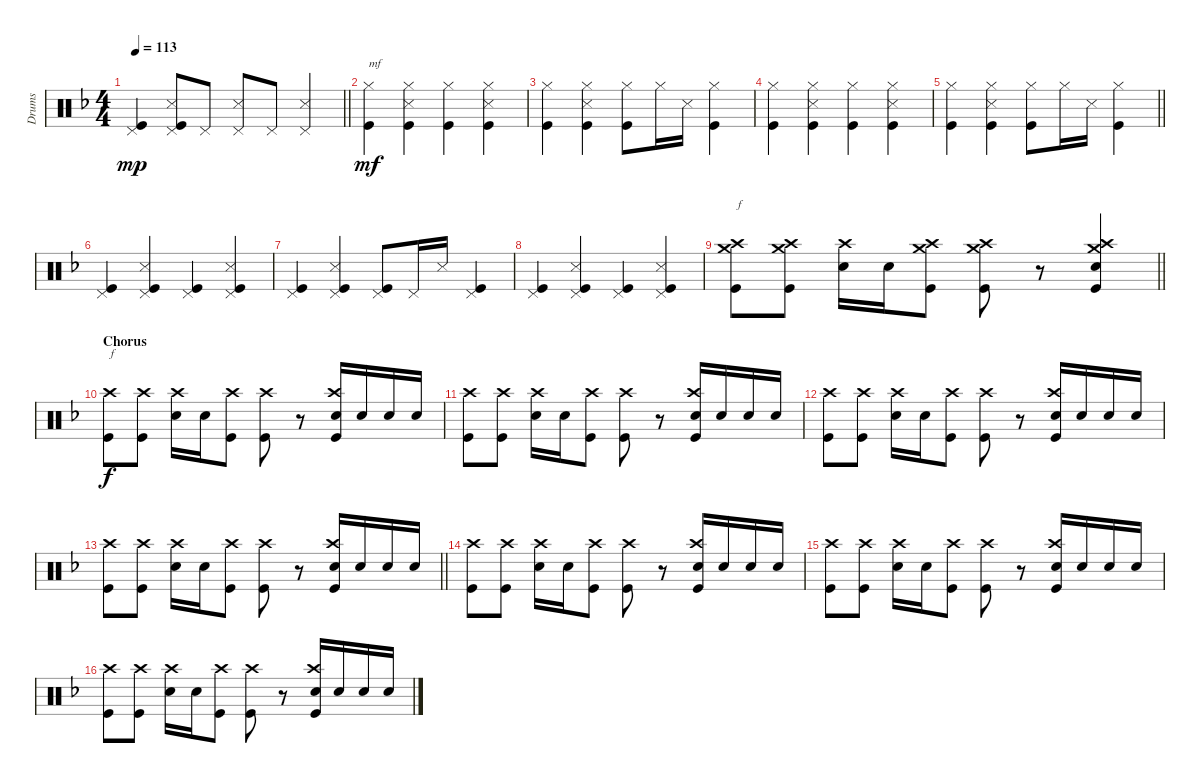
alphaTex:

\track ("Drums" "Drums") {instrument percussion}
\staff {score}
\articulation defaults
\ts (4 4)
\tempo 113
\clef neutral
\barLineRight lightlight
\ks dminor
("Pedal Hi-Hat (hit)" "Kick (hit)").4{dy mp} ("Pedal Hi-Hat (hit)" "Snare (side stick) 3" "Kick (hit)").8 "Pedal Hi-Hat (hit)".8 ("Pedal Hi-Hat (hit)" "Snare (side stick) 3").8 "Pedal Hi-Hat (hit)".8 ("Pedal Hi-Hat (hit)" "Snare (side stick) 3").4 |
\section ("" "")
("Hi-Hat (closed)" "Kick (hit)").4{txt "mf" dy mf} ("Hi-Hat (closed)" "Snare (side stick) 3" "Kick (hit)").4 ("Hi-Hat (closed)" "Kick (hit)").4 ("Hi-Hat (closed)" "Snare (side stick) 3" "Kick (hit)").4 |
("Hi-Hat (closed)" "Kick (hit)").4 ("Hi-Hat (closed)" "Snare (side stick) 3" "Kick (hit)").4 ("Hi-Hat (closed)" "Kick (hit)").8 "Hi-Hat (closed)".16 "Snare (side stick) 3".16 ("Hi-Hat (closed)" "Kick (hit)").4 |
("Hi-Hat (closed)" "Kick (hit)").4 ("Hi-Hat (closed)" "Snare (side stick) 3" "Kick (hit)").4 ("Hi-Hat (closed)" "Kick (hit)").4 ("Hi-Hat (closed)" "Snare (side stick) 3" "Kick (hit)").4 |
\barLineRight lightlight
("Hi-Hat (closed)" "Kick (hit)").4 ("Hi-Hat (closed)" "Snare (side stick) 3" "Kick (hit)").4 ("Hi-Hat (closed)" "Kick (hit)").8 "Hi-Hat (closed)".16 "Snare (side stick) 3".16 ("Hi-Hat (closed)" "Kick (hit)").4 |
\section ("" "")
("Pedal Hi-Hat (hit)" "Kick (hit)").4 ("Pedal Hi-Hat (hit)" "Snare (side stick) 3" "Kick (hit)").4 ("Pedal Hi-Hat (hit)" "Kick (hit)").4 ("Pedal Hi-Hat (hit)" "Snare (side stick) 3" "Kick (hit)").4 |
("Pedal Hi-Hat (hit)" "Kick (hit)").4 ("Pedal Hi-Hat (hit)" "Snare (side stick) 3" "Kick (hit)").4 ("Pedal Hi-Hat (hit)" "Kick (hit)").8 "Pedal Hi-Hat (hit)".16 "Snare (side stick) 3".16 ("Pedal Hi-Hat (hit)" "Kick (hit)").4 |
("Pedal Hi-Hat (hit)" "Kick (hit)").4 ("Pedal Hi-Hat (hit)" "Snare (side stick) 3" "Kick (hit)").4 ("Pedal Hi-Hat (hit)" "Kick (hit)").4 ("Pedal Hi-Hat (hit)" "Snare (side stick) 3" "Kick (hit)").4 |
\barLineRight lightlight
("Crash high (hit)" "Crash medium (hit)" "Kick (hit)").8{txt "f"} ("Crash high (hit)" "Crash medium (hit)" "Kick (hit)").8 ("Crash high (hit)" "Electric Snare (hit)").16 "Electric Snare (hit)".16 ("Crash high (hit)" "Crash medium (hit)" "Kick (hit)").8 ("Crash high (hit)" "Crash medium (hit)" "Kick (hit)").8 r.8 ("Crash high (hit)" "Crash medium (hit)" "Electric Snare (hit)" "Kick (hit)").4 |
\section ("" "Chorus")
("Crash high (hit)" "Kick (hit)").8{txt "f" dy f} ("Crash high (hit)" "Kick (hit)").8 ("Crash high (hit)" "Electric Snare (hit)").16 "Electric Snare (hit)".16 ("Crash high (hit)" "Kick (hit)").8 ("Crash high (hit)" "Kick (hit)").8 r.8 ("Crash high (hit)" "Electric Snare (hit)" "Kick (hit)").16 "Electric Snare (hit)".16 "Electric Snare (hit)".16 "Electric Snare (hit)".16 |
("Crash high (hit)" "Kick (hit)").8 ("Crash high (hit)" "Kick (hit)").8 ("Crash high (hit)" "Electric Snare (hit)").16 "Electric Snare (hit)".16 ("Crash high (hit)" "Kick (hit)").8 ("Crash high (hit)" "Kick (hit)").8 r.8 ("Crash high (hit)" "Electric Snare (hit)" "Kick (hit)").16 "Electric Snare (hit)".16 "Electric Snare (hit)".16 "Electric Snare (hit)".16 |
("Crash high (hit)" "Kick (hit)").8 ("Crash high (hit)" "Kick (hit)").8 ("Crash high (hit)" "Electric Snare (hit)").16 "Electric Snare (hit)".16 ("Crash high (hit)" "Kick (hit)").8 ("Crash high (hit)" "Kick (hit)").8 r.8 ("Crash high (hit)" "Electric Snare (hit)" "Kick (hit)").16 "Electric Snare (hit)".16 "Electric Snare (hit)".16 "Electric Snare (hit)".16 |
\barLineRight lightlight
("Crash high (hit)" "Kick (hit)").8 ("Crash high (hit)" "Kick (hit)").8 ("Crash high (hit)" "Electric Snare (hit)").16 "Electric Snare (hit)".16 ("Crash high (hit)" "Kick (hit)").8 ("Crash high (hit)" "Kick (hit)").8 r.8 ("Crash high (hit)" "Electric Snare (hit)" "Kick (hit)").16 "Electric Snare (hit)".16 "Electric Snare (hit)".16 "Electric Snare (hit)".16 |
\section ("" "")
("Crash high (hit)" "Kick (hit)").8 ("Crash high (hit)" "Kick (hit)").8 ("Crash high (hit)" "Electric Snare (hit)").16 "Electric Snare (hit)".16 ("Crash high (hit)" "Kick (hit)").8 ("Crash high (hit)" "Kick (hit)").8 r.8 ("Crash high (hit)" "Electric Snare (hit)" "Kick (hit)").16 "Electric Snare (hit)".16 "Electric Snare (hit)".16 "Electric Snare (hit)".16 |
("Crash high (hit)" "Kick (hit)").8 ("Crash high (hit)" "Kick (hit)").8 ("Crash high (hit)" "Electric Snare (hit)").16 "Electric Snare (hit)".16 ("Crash high (hit)" "Kick (hit)").8 ("Crash high (hit)" "Kick (hit)").8 r.8 ("Crash high (hit)" "Electric Snare (hit)" "Kick (hit)").16 "Electric Snare (hit)".16 "Electric Snare (hit)".16 "Electric Snare (hit)".16 |
("Crash high (hit)" "Kick (hit)").8 ("Crash high (hit)" "Kick (hit)").8 ("Crash high (hit)" "Electric Snare (hit)").16 "Electric Snare (hit)".16 ("Crash high (hit)" "Kick (hit)").8 ("Crash high (hit)" "Kick (hit)").8 r.8 ("Crash high (hit)" "Electric Snare (hit)" "Kick (hit)").16 "Electric Snare (hit)".16 "Electric Snare (hit)".16 "Electric Snare (hit)".16
